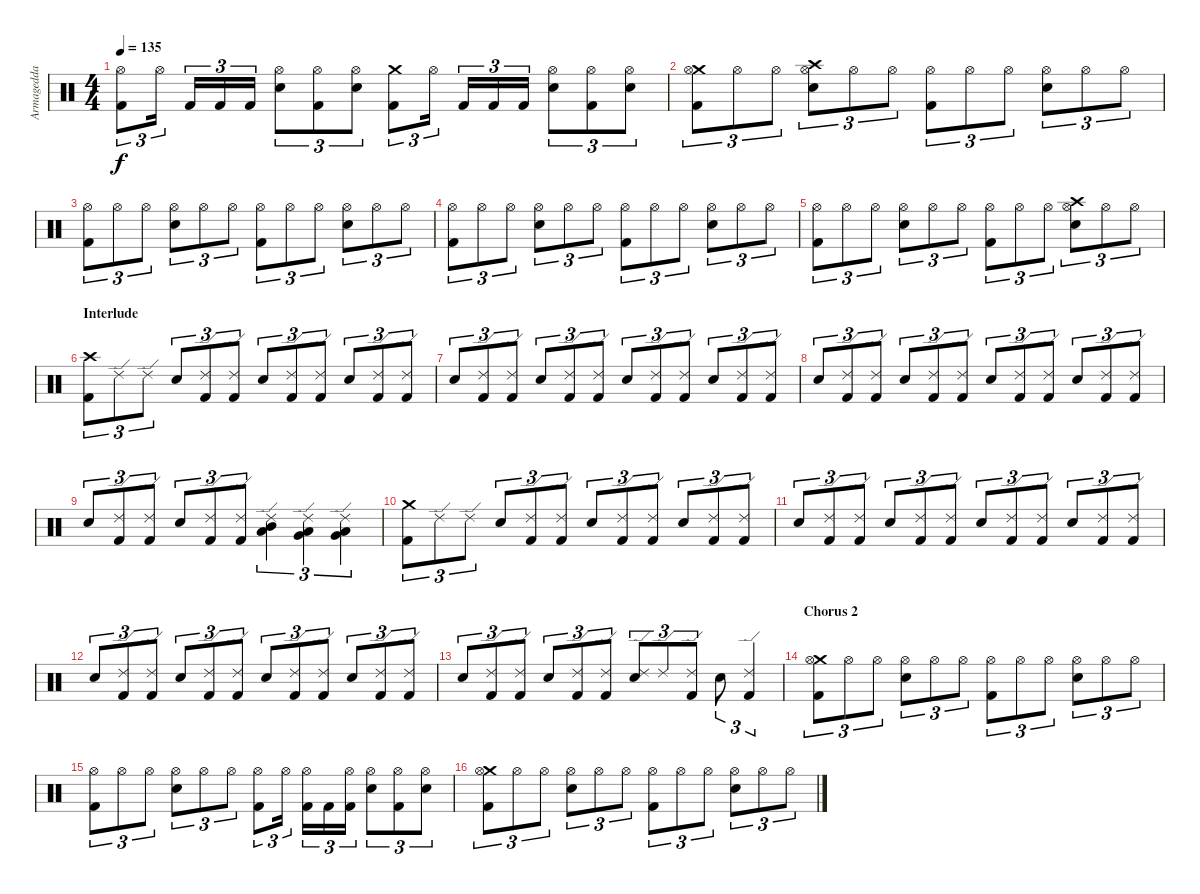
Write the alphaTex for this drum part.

\track ("Armagedda" "Armagedda") {instrument percussion}
\staff {score}
\articulation defaults
\ts (4 4)
\tempo 135
\clef neutral
\ks c
("Hi-Hat (open)" "Kick (hit) 2").8{tu (3 2) dy f} "Hi-Hat (open)".16{tu (3 2)} "Kick (hit) 2".16{tu (3 2)} "Kick (hit) 2".16{tu (3 2)} "Kick (hit) 2".16{tu (3 2)} ("Hi-Hat (open)" "Electric Snare (hit)").8{tu (3 2)} ("Hi-Hat (open)" "Kick (hit) 2").8{tu (3 2)} ("Hi-Hat (open)" "Electric Snare (hit)").8{tu (3 2)} ("Crash medium (hit)" "Kick (hit) 2").8{tu (3 2)} "Hi-Hat (open)".16{tu (3 2)} "Kick (hit) 2".16{tu (3 2)} "Kick (hit) 2".16{tu (3 2)} "Kick (hit) 2".16{tu (3 2)} ("Hi-Hat (open)" "Electric Snare (hit)").8{tu (3 2)} ("Hi-Hat (open)" "Kick (hit) 2").8{tu (3 2)} ("Hi-Hat (open)" "Electric Snare (hit)").8{tu (3 2)} |
("Crash medium (hit)" "Hi-Hat (open)" "Kick (hit) 2").8{tu (3 2)} "Hi-Hat (open)".8{tu (3 2)} "Hi-Hat (open)".8{tu (3 2)} ("Crash high (hit)" "Hi-Hat (open)" "Electric Snare (hit)").8{tu (3 2)} "Hi-Hat (open)".8{tu (3 2)} "Hi-Hat (open)".8{tu (3 2)} ("Hi-Hat (open)" "Kick (hit) 2").8{tu (3 2)} "Hi-Hat (open)".8{tu (3 2)} "Hi-Hat (open)".8{tu (3 2)} ("Hi-Hat (open)" "Electric Snare (hit)").8{tu (3 2)} "Hi-Hat (open)".8{tu (3 2)} "Hi-Hat (open)".8{tu (3 2)} |
("Hi-Hat (open)" "Kick (hit) 2").8{tu (3 2)} "Hi-Hat (open)".8{tu (3 2)} "Hi-Hat (open)".8{tu (3 2)} ("Hi-Hat (open)" "Electric Snare (hit)").8{tu (3 2)} "Hi-Hat (open)".8{tu (3 2)} "Hi-Hat (open)".8{tu (3 2)} ("Hi-Hat (open)" "Kick (hit) 2").8{tu (3 2)} "Hi-Hat (open)".8{tu (3 2)} "Hi-Hat (open)".8{tu (3 2)} ("Hi-Hat (open)" "Electric Snare (hit)").8{tu (3 2)} "Hi-Hat (open)".8{tu (3 2)} "Hi-Hat (open)".8{tu (3 2)} |
("Hi-Hat (open)" "Kick (hit) 2").8{tu (3 2)} "Hi-Hat (open)".8{tu (3 2)} "Hi-Hat (open)".8{tu (3 2)} ("Hi-Hat (open)" "Electric Snare (hit)").8{tu (3 2)} "Hi-Hat (open)".8{tu (3 2)} "Hi-Hat (open)".8{tu (3 2)} ("Hi-Hat (open)" "Kick (hit) 2").8{tu (3 2)} "Hi-Hat (open)".8{tu (3 2)} "Hi-Hat (open)".8{tu (3 2)} ("Hi-Hat (open)" "Electric Snare (hit)").8{tu (3 2)} "Hi-Hat (open)".8{tu (3 2)} "Hi-Hat (open)".8{tu (3 2)} |
("Hi-Hat (open)" "Kick (hit) 2").8{tu (3 2)} "Hi-Hat (open)".8{tu (3 2)} "Hi-Hat (open)".8{tu (3 2)} ("Hi-Hat (open)" "Electric Snare (hit)").8{tu (3 2)} "Hi-Hat (open)".8{tu (3 2)} "Hi-Hat (open)".8{tu (3 2)} ("Hi-Hat (open)" "Kick (hit) 2").8{tu (3 2)} "Hi-Hat (open)".8{tu (3 2)} "Hi-Hat (open)".8{tu (3 2)} ("Crash high (hit)" "Hi-Hat (open)" "Electric Snare (hit)").8{tu (3 2)} "Hi-Hat (open)".8{tu (3 2)} "Hi-Hat (open)".8{tu (3 2)} |
\section ("" "Interlude")
("Crash high (hit)" "Kick (hit) 2").8{tu (3 2)} "Ride (edge) 2".8{tu (3 2)} "Ride (edge) 2".8{tu (3 2)} "Electric Snare (hit)".8{tu (3 2)} ("Ride (edge) 2" "Kick (hit) 2").8{tu (3 2)} ("Ride (edge) 2" "Kick (hit) 2").8{tu (3 2)} "Electric Snare (hit)".8{tu (3 2)} ("Ride (edge) 2" "Kick (hit) 2").8{tu (3 2)} ("Ride (edge) 2" "Kick (hit) 2").8{tu (3 2)} "Electric Snare (hit)".8{tu (3 2)} ("Ride (edge) 2" "Kick (hit) 2").8{tu (3 2)} ("Ride (edge) 2" "Kick (hit) 2").8{tu (3 2)} |
"Electric Snare (hit)".8{tu (3 2)} ("Ride (edge) 2" "Kick (hit) 2").8{tu (3 2)} ("Ride (edge) 2" "Kick (hit) 2").8{tu (3 2)} "Electric Snare (hit)".8{tu (3 2)} ("Ride (edge) 2" "Kick (hit) 2").8{tu (3 2)} ("Ride (edge) 2" "Kick (hit) 2").8{tu (3 2)} "Electric Snare (hit)".8{tu (3 2)} ("Ride (edge) 2" "Kick (hit) 2").8{tu (3 2)} ("Ride (edge) 2" "Kick (hit) 2").8{tu (3 2)} "Electric Snare (hit)".8{tu (3 2)} ("Ride (edge) 2" "Kick (hit) 2").8{tu (3 2)} ("Ride (edge) 2" "Kick (hit) 2").8{tu (3 2)} |
"Electric Snare (hit)".8{tu (3 2)} ("Ride (edge) 2" "Kick (hit) 2").8{tu (3 2)} ("Ride (edge) 2" "Kick (hit) 2").8{tu (3 2)} "Electric Snare (hit)".8{tu (3 2)} ("Ride (edge) 2" "Kick (hit) 2").8{tu (3 2)} ("Ride (edge) 2" "Kick (hit) 2").8{tu (3 2)} "Electric Snare (hit)".8{tu (3 2)} ("Ride (edge) 2" "Kick (hit) 2").8{tu (3 2)} ("Ride (edge) 2" "Kick (hit) 2").8{tu (3 2)} "Electric Snare (hit)".8{tu (3 2)} ("Ride (edge) 2" "Kick (hit) 2").8{tu (3 2)} ("Ride (edge) 2" "Kick (hit) 2").8{tu (3 2)} |
"Electric Snare (hit)".8{tu (3 2)} ("Ride (edge) 2" "Kick (hit) 2").8{tu (3 2)} ("Ride (edge) 2" "Kick (hit) 2").8{tu (3 2)} "Electric Snare (hit)".8{tu (3 2)} ("Ride (edge) 2" "Kick (hit) 2").8{tu (3 2)} ("Ride (edge) 2" "Kick (hit) 2").8{tu (3 2)} ("Ride (edge) 2" "Mid Tom (hit)" "Low Tom (hit)").4{tu (3 2)} ("Ride (edge) 2" "Low Tom (hit)" "Very Low Tom (hit)").4{tu (3 2)} ("Ride (edge) 2" "Very Low Tom (hit)" "Low Floor Tom (hit)").4{tu (3 2)} |
("Crash medium (hit)" "Kick (hit) 2").8{tu (3 2)} "Ride (edge) 2".8{tu (3 2)} "Ride (edge) 2".8{tu (3 2)} "Electric Snare (hit)".8{tu (3 2)} ("Ride (edge) 2" "Kick (hit) 2").8{tu (3 2)} ("Ride (edge) 2" "Kick (hit) 2").8{tu (3 2)} "Electric Snare (hit)".8{tu (3 2)} ("Ride (edge) 2" "Kick (hit) 2").8{tu (3 2)} ("Ride (edge) 2" "Kick (hit) 2").8{tu (3 2)} "Electric Snare (hit)".8{tu (3 2)} ("Ride (edge) 2" "Kick (hit) 2").8{tu (3 2)} ("Ride (edge) 2" "Kick (hit) 2").8{tu (3 2)} |
"Electric Snare (hit)".8{tu (3 2)} ("Ride (edge) 2" "Kick (hit) 2").8{tu (3 2)} ("Ride (edge) 2" "Kick (hit) 2").8{tu (3 2)} "Electric Snare (hit)".8{tu (3 2)} ("Ride (edge) 2" "Kick (hit) 2").8{tu (3 2)} ("Ride (edge) 2" "Kick (hit) 2").8{tu (3 2)} "Electric Snare (hit)".8{tu (3 2)} ("Ride (edge) 2" "Kick (hit) 2").8{tu (3 2)} ("Ride (edge) 2" "Kick (hit) 2").8{tu (3 2)} "Electric Snare (hit)".8{tu (3 2)} ("Ride (edge) 2" "Kick (hit) 2").8{tu (3 2)} ("Ride (edge) 2" "Kick (hit) 2").8{tu (3 2)} |
"Electric Snare (hit)".8{tu (3 2)} ("Ride (edge) 2" "Kick (hit) 2").8{tu (3 2)} ("Ride (edge) 2" "Kick (hit) 2").8{tu (3 2)} "Electric Snare (hit)".8{tu (3 2)} ("Ride (edge) 2" "Kick (hit) 2").8{tu (3 2)} ("Ride (edge) 2" "Kick (hit) 2").8{tu (3 2)} "Electric Snare (hit)".8{tu (3 2)} ("Ride (edge) 2" "Kick (hit) 2").8{tu (3 2)} ("Ride (edge) 2" "Kick (hit) 2").8{tu (3 2)} "Electric Snare (hit)".8{tu (3 2)} ("Ride (edge) 2" "Kick (hit) 2").8{tu (3 2)} ("Ride (edge) 2" "Kick (hit) 2").8{tu (3 2)} |
"Electric Snare (hit)".8{tu (3 2)} ("Ride (edge) 2" "Kick (hit) 2").8{tu (3 2)} ("Ride (edge) 2" "Kick (hit) 2").8{tu (3 2)} "Electric Snare (hit)".8{tu (3 2)} ("Ride (edge) 2" "Kick (hit) 2").8{tu (3 2)} ("Ride (edge) 2" "Kick (hit) 2").8{tu (3 2)} ("Ride (edge) 2" "Electric Snare (hit)").8{tu (3 2)} "Ride (edge) 2".8{tu (3 2)} ("Ride (edge) 2" "Kick (hit) 2").8{tu (3 2)} "Electric Snare (hit)".8{tu (3 2)} ("Ride (edge) 2" "Kick (hit) 2").4{tu (3 2)} |
\section ("" "Chorus 2")
("Crash medium (hit)" "Hi-Hat (open)" "Kick (hit) 2").8{tu (3 2)} "Hi-Hat (open)".8{tu (3 2)} "Hi-Hat (open)".8{tu (3 2)} ("Hi-Hat (open)" "Electric Snare (hit)").8{tu (3 2)} "Hi-Hat (open)".8{tu (3 2)} "Hi-Hat (open)".8{tu (3 2)} ("Hi-Hat (open)" "Kick (hit) 2").8{tu (3 2)} "Hi-Hat (open)".8{tu (3 2)} "Hi-Hat (open)".8{tu (3 2)} ("Hi-Hat (open)" "Electric Snare (hit)").8{tu (3 2)} "Hi-Hat (open)".8{tu (3 2)} "Hi-Hat (open)".8{tu (3 2)} |
("Hi-Hat (open)" "Kick (hit) 2").8{tu (3 2)} "Hi-Hat (open)".8{tu (3 2)} "Hi-Hat (open)".8{tu (3 2)} ("Hi-Hat (open)" "Electric Snare (hit)").8{tu (3 2)} "Hi-Hat (open)".8{tu (3 2)} "Hi-Hat (open)".8{tu (3 2)} ("Hi-Hat (open)" "Kick (hit) 2").8{tu (3 2)} "Hi-Hat (open)".16{tu (3 2)} ("Hi-Hat (open)" "Kick (hit) 2").16{tu (3 2)} "Kick (hit) 2".16{tu (3 2)} ("Hi-Hat (open)" "Kick (hit) 2").16{tu (3 2)} ("Hi-Hat (open)" "Electric Snare (hit)").8{tu (3 2)} ("Hi-Hat (open)" "Kick (hit) 2").8{tu (3 2)} ("Hi-Hat (open)" "Electric Snare (hit)").8{tu (3 2)} |
("Crash medium (hit)" "Hi-Hat (open)" "Kick (hit) 2").8{tu (3 2)} "Hi-Hat (open)".8{tu (3 2)} "Hi-Hat (open)".8{tu (3 2)} ("Hi-Hat (open)" "Electric Snare (hit)").8{tu (3 2)} "Hi-Hat (open)".8{tu (3 2)} "Hi-Hat (open)".8{tu (3 2)} ("Hi-Hat (open)" "Kick (hit) 2").8{tu (3 2)} "Hi-Hat (open)".8{tu (3 2)} "Hi-Hat (open)".8{tu (3 2)} ("Hi-Hat (open)" "Electric Snare (hit)").8{tu (3 2)} "Hi-Hat (open)".8{tu (3 2)} "Hi-Hat (open)".8{tu (3 2)}
